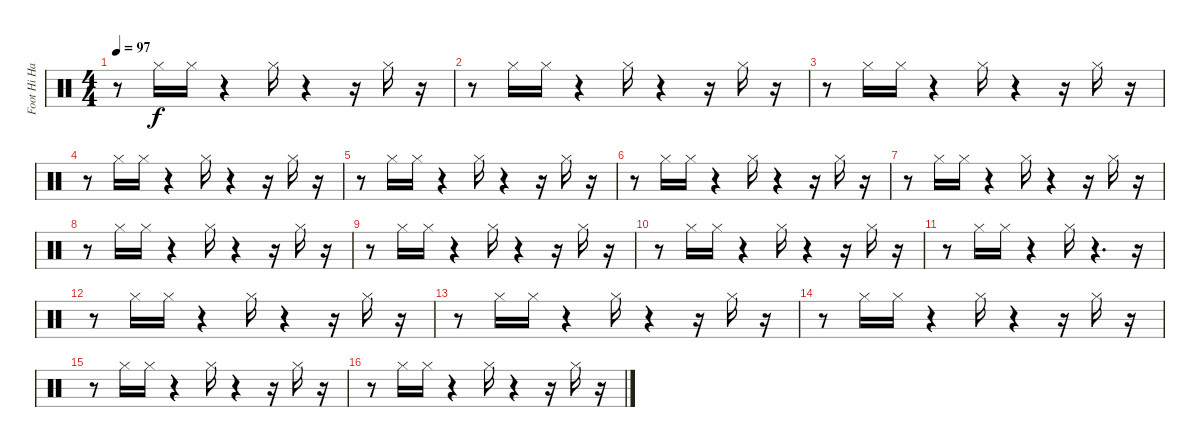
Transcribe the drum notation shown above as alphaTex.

\track ("Foot Hi Hat" "Foot Hi Ha") {instrument percussion}
\staff {score}
\articulation defaults
\ts (4 4)
\tempo 97
\clef neutral
\ks c
r.8{dy f} "Hi-Hat (closed)".16 "Hi-Hat (closed)".16 r.4 "Hi-Hat (closed)".16 r.4 r.16 "Hi-Hat (closed)".16 r.16 |
r.8 "Hi-Hat (closed)".16 "Hi-Hat (closed)".16 r.4 "Hi-Hat (closed)".16 r.4 r.16 "Hi-Hat (closed)".16 r.16 |
r.8 "Hi-Hat (closed)".16 "Hi-Hat (closed)".16 r.4 "Hi-Hat (closed)".16 r.4 r.16 "Hi-Hat (closed)".16 r.16 |
r.8 "Hi-Hat (closed)".16 "Hi-Hat (closed)".16 r.4 "Hi-Hat (closed)".16 r.4 r.16 "Hi-Hat (closed)".16 r.16 |
r.8 "Hi-Hat (closed)".16 "Hi-Hat (closed)".16 r.4 "Hi-Hat (closed)".16 r.4 r.16 "Hi-Hat (closed)".16 r.16 |
r.8 "Hi-Hat (closed)".16 "Hi-Hat (closed)".16 r.4 "Hi-Hat (closed)".16 r.4 r.16 "Hi-Hat (closed)".16 r.16 |
r.8 "Hi-Hat (closed)".16 "Hi-Hat (closed)".16 r.4 "Hi-Hat (closed)".16 r.4 r.16 "Hi-Hat (closed)".16 r.16 |
r.8 "Hi-Hat (closed)".16 "Hi-Hat (closed)".16 r.4 "Hi-Hat (closed)".16 r.4 r.16 "Hi-Hat (closed)".16 r.16 |
r.8 "Hi-Hat (closed)".16 "Hi-Hat (closed)".16 r.4 "Hi-Hat (closed)".16 r.4 r.16 "Hi-Hat (closed)".16 r.16 |
r.8 "Hi-Hat (closed)".16 "Hi-Hat (closed)".16 r.4 "Hi-Hat (closed)".16 r.4 r.16 "Hi-Hat (closed)".16 r.16 |
r.8 "Hi-Hat (closed)".16 "Hi-Hat (closed)".16 r.4 "Hi-Hat (closed)".16 r.4{d} r.16 |
r.8 "Hi-Hat (closed)".16 "Hi-Hat (closed)".16 r.4 "Hi-Hat (closed)".16 r.4 r.16 "Hi-Hat (closed)".16 r.16 |
r.8 "Hi-Hat (closed)".16 "Hi-Hat (closed)".16 r.4 "Hi-Hat (closed)".16 r.4 r.16 "Hi-Hat (closed)".16 r.16 |
r.8 "Hi-Hat (closed)".16 "Hi-Hat (closed)".16 r.4 "Hi-Hat (closed)".16 r.4 r.16 "Hi-Hat (closed)".16 r.16 |
r.8 "Hi-Hat (closed)".16 "Hi-Hat (closed)".16 r.4 "Hi-Hat (closed)".16 r.4 r.16 "Hi-Hat (closed)".16 r.16 |
r.8 "Hi-Hat (closed)".16 "Hi-Hat (closed)".16 r.4 "Hi-Hat (closed)".16 r.4 r.16 "Hi-Hat (closed)".16 r.16
